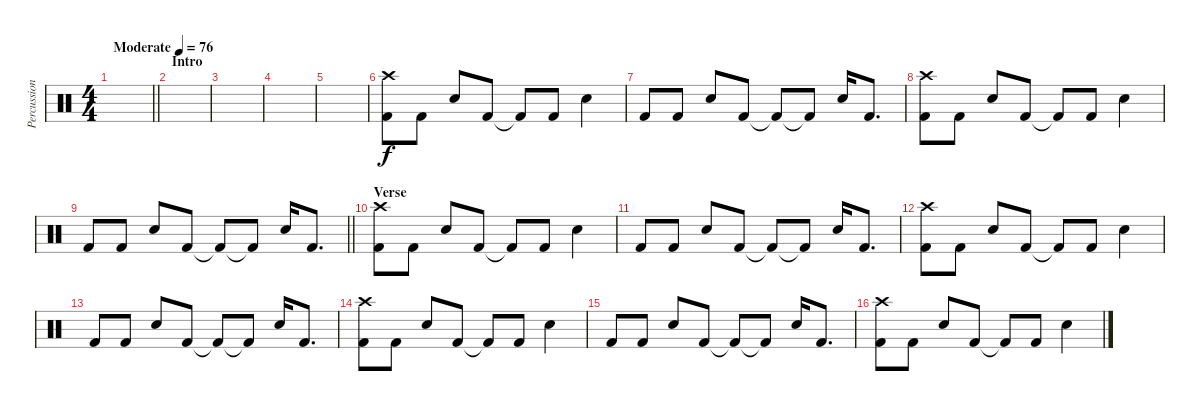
\track ("Percussion" "Percussion") {instrument percussion}
\staff {score}
\articulation defaults
\ts (4 4)
\tempo (76 "Moderate")
\clef neutral
\barLineRight lightlight
\ks c
|
\section ("" "Intro")
|
|
|
|
("Kick (hit) 2" "Crash high (hit)").8 "Kick (hit) 2".8 "Electric Snare (hit)".8 "Kick (hit) 2".8 "Kick (hit) 2"{t}.8 "Kick (hit) 2".8 "Electric Snare (hit)".4 |
"Kick (hit) 2".8 "Kick (hit) 2".8 "Electric Snare (hit)".8 "Kick (hit) 2".8 "Kick (hit) 2"{t}.8 "Kick (hit) 2"{t}.8 "Electric Snare (hit)".16 "Kick (hit) 2".8{d} |
("Kick (hit) 2" "Crash high (hit)").8 "Kick (hit) 2".8 "Electric Snare (hit)".8 "Kick (hit) 2".8 "Kick (hit) 2"{t}.8 "Kick (hit) 2".8 "Electric Snare (hit)".4 |
\barLineRight lightlight "Kick (hit) 2".8 "Kick (hit) 2".8 "Electric Snare (hit)".8 "Kick (hit) 2".8 "Kick (hit) 2"{t}.8 "Kick (hit) 2"{t}.8 "Electric Snare (hit)".16 "Kick (hit) 2".8{d}
|
\section ("" "Verse")
("Kick (hit) 2" "Crash high (hit)").8 "Kick (hit) 2".8 "Electric Snare (hit)".8 "Kick (hit) 2".8 "Kick (hit) 2"{t}.8 "Kick (hit) 2".8 "Electric Snare (hit)".4 |
"Kick (hit) 2".8 "Kick (hit) 2".8 "Electric Snare (hit)".8 "Kick (hit) 2".8 "Kick (hit) 2"{t}.8 "Kick (hit) 2"{t}.8 "Electric Snare (hit)".16 "Kick (hit) 2".8{d} |
("Kick (hit) 2" "Crash high (hit)").8 "Kick (hit) 2".8 "Electric Snare (hit)".8 "Kick (hit) 2".8 "Kick (hit) 2"{t}.8 "Kick (hit) 2".8 "Electric Snare (hit)".4 |
"Kick (hit) 2".8 "Kick (hit) 2".8 "Electric Snare (hit)".8 "Kick (hit) 2".8 "Kick (hit) 2"{t}.8 "Kick (hit) 2"{t}.8 "Electric Snare (hit)".16 "Kick (hit) 2".8{d} |
("Kick (hit) 2" "Crash high (hit)").8 "Kick (hit) 2".8 "Electric Snare (hit)".8 "Kick (hit) 2".8 "Kick (hit) 2"{t}.8 "Kick (hit) 2".8 "Electric Snare (hit)".4 |
"Kick (hit) 2".8 "Kick (hit) 2".8 "Electric Snare (hit)".8 "Kick (hit) 2".8 "Kick (hit) 2"{t}.8 "Kick (hit) 2"{t}.8 "Electric Snare (hit)".16 "Kick (hit) 2".8{d} |
("Kick (hit) 2" "Crash high (hit)").8 "Kick (hit) 2".8 "Electric Snare (hit)".8 "Kick (hit) 2".8 "Kick (hit) 2"{t}.8 "Kick (hit) 2".8 "Electric Snare (hit)".4
